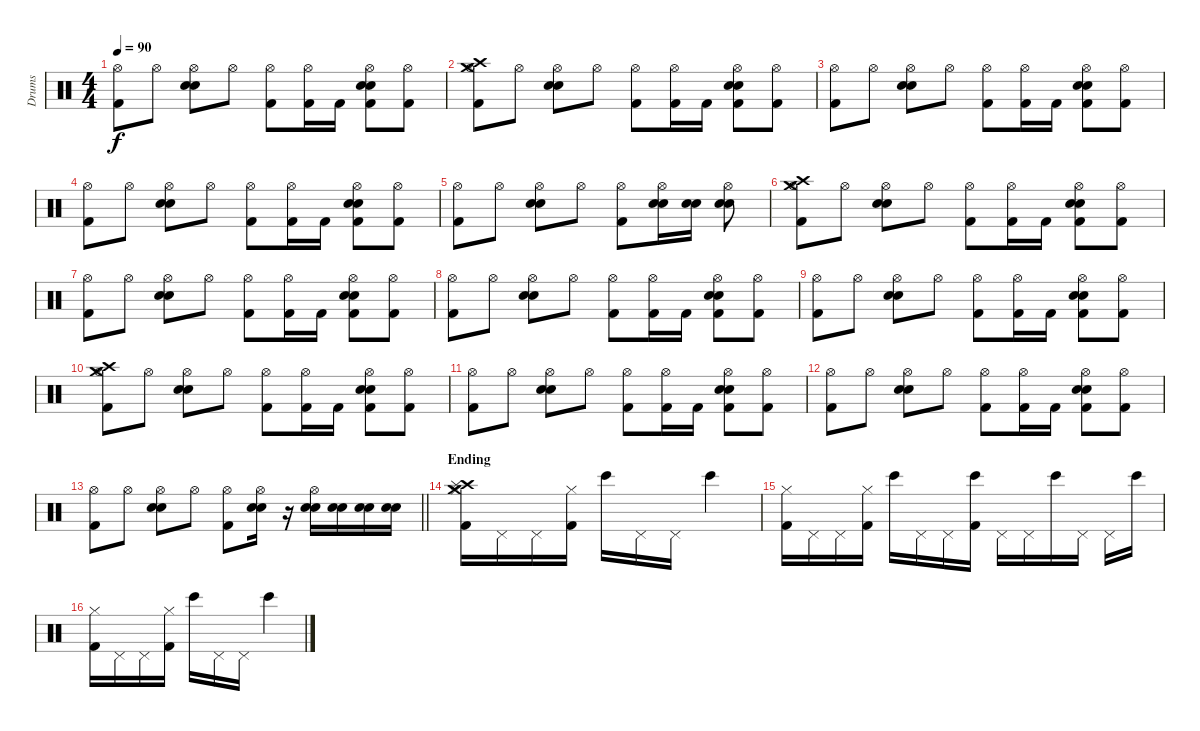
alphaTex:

\track ("Drums" "Drums") {instrument percussion}
\staff {score}
\articulation defaults
\ts (4 4)
\tempo 90
\clef neutral
\ks c
("Hi-Hat (open)" "Kick (hit) 2").8{dy f} "Hi-Hat (open)".8 ("Hi-Hat (open)" "Electric Snare (hit)" "Electric Snare (hit)").8 "Hi-Hat (open)".8 ("Hi-Hat (open)" "Kick (hit) 2").8 ("Hi-Hat (open)" "Kick (hit) 2").16 "Kick (hit) 2".16 ("Hi-Hat (open)" "Electric Snare (hit)" "Electric Snare (hit)" "Kick (hit) 2").8 ("Hi-Hat (open)" "Kick (hit) 2").8 |
("Hi-Hat (open)" "Crash high (hit)" "Crash medium (hit)" "Kick (hit) 2").8 "Hi-Hat (open)".8 ("Hi-Hat (open)" "Electric Snare (hit)" "Electric Snare (hit)").8 "Hi-Hat (open)".8 ("Hi-Hat (open)" "Kick (hit) 2").8 ("Hi-Hat (open)" "Kick (hit) 2").16 "Kick (hit) 2".16 ("Hi-Hat (open)" "Electric Snare (hit)" "Electric Snare (hit)" "Kick (hit) 2").8 ("Hi-Hat (open)" "Kick (hit) 2").8 |
("Hi-Hat (open)" "Kick (hit) 2").8 "Hi-Hat (open)".8 ("Hi-Hat (open)" "Electric Snare (hit)" "Electric Snare (hit)").8 "Hi-Hat (open)".8 ("Hi-Hat (open)" "Kick (hit) 2").8 ("Hi-Hat (open)" "Kick (hit) 2").16 "Kick (hit) 2".16 ("Hi-Hat (open)" "Electric Snare (hit)" "Electric Snare (hit)" "Kick (hit) 2").8 ("Hi-Hat (open)" "Kick (hit) 2").8 |
("Hi-Hat (open)" "Kick (hit) 2").8 "Hi-Hat (open)".8 ("Hi-Hat (open)" "Electric Snare (hit)" "Electric Snare (hit)").8 "Hi-Hat (open)".8 ("Hi-Hat (open)" "Kick (hit) 2").8 ("Hi-Hat (open)" "Kick (hit) 2").16 "Kick (hit) 2".16 ("Hi-Hat (open)" "Electric Snare (hit)" "Electric Snare (hit)" "Kick (hit) 2").8 ("Hi-Hat (open)" "Kick (hit) 2").8 |
("Hi-Hat (open)" "Kick (hit) 2").8 "Hi-Hat (open)".8 ("Hi-Hat (open)" "Electric Snare (hit)" "Electric Snare (hit)").8 "Hi-Hat (open)".8 ("Hi-Hat (open)" "Kick (hit) 2").8 ("Hi-Hat (open)" "Electric Snare (hit)" "Electric Snare (hit)").16 ("Electric Snare (hit)" "Electric Snare (hit)").16 ("Hi-Hat (open)" "Electric Snare (hit)" "Electric Snare (hit)").8 |
("Hi-Hat (open)" "Crash high (hit)" "Crash medium (hit)" "Kick (hit) 2").8 "Hi-Hat (open)".8 ("Hi-Hat (open)" "Electric Snare (hit)" "Electric Snare (hit)").8 "Hi-Hat (open)".8 ("Hi-Hat (open)" "Kick (hit) 2").8 ("Hi-Hat (open)" "Kick (hit) 2").16 "Kick (hit) 2".16 ("Hi-Hat (open)" "Electric Snare (hit)" "Electric Snare (hit)" "Kick (hit) 2").8 ("Hi-Hat (open)" "Kick (hit) 2").8 |
("Hi-Hat (open)" "Kick (hit) 2").8 "Hi-Hat (open)".8 ("Hi-Hat (open)" "Electric Snare (hit)" "Electric Snare (hit)").8 "Hi-Hat (open)".8 ("Hi-Hat (open)" "Kick (hit) 2").8 ("Hi-Hat (open)" "Kick (hit) 2").16 "Kick (hit) 2".16 ("Hi-Hat (open)" "Electric Snare (hit)" "Electric Snare (hit)" "Kick (hit) 2").8 ("Hi-Hat (open)" "Kick (hit) 2").8 |
("Hi-Hat (open)" "Kick (hit) 2").8 "Hi-Hat (open)".8 ("Hi-Hat (open)" "Electric Snare (hit)" "Electric Snare (hit)").8 "Hi-Hat (open)".8 ("Hi-Hat (open)" "Kick (hit) 2").8 ("Hi-Hat (open)" "Kick (hit) 2").16 "Kick (hit) 2".16 ("Hi-Hat (open)" "Electric Snare (hit)" "Electric Snare (hit)" "Kick (hit) 2").8 ("Hi-Hat (open)" "Kick (hit) 2").8 |
("Hi-Hat (open)" "Kick (hit) 2").8 "Hi-Hat (open)".8 ("Hi-Hat (open)" "Electric Snare (hit)" "Electric Snare (hit)").8 "Hi-Hat (open)".8 ("Hi-Hat (open)" "Kick (hit) 2").8 ("Hi-Hat (open)" "Kick (hit) 2").16 "Kick (hit) 2".16 ("Hi-Hat (open)" "Electric Snare (hit)" "Electric Snare (hit)" "Kick (hit) 2").8 ("Hi-Hat (open)" "Kick (hit) 2").8 |
("Hi-Hat (open)" "Crash high (hit)" "Crash medium (hit)" "Kick (hit) 2").8 "Hi-Hat (open)".8 ("Hi-Hat (open)" "Electric Snare (hit)" "Electric Snare (hit)").8 "Hi-Hat (open)".8 ("Hi-Hat (open)" "Kick (hit) 2").8 ("Hi-Hat (open)" "Kick (hit) 2").16 "Kick (hit) 2".16 ("Hi-Hat (open)" "Electric Snare (hit)" "Electric Snare (hit)" "Kick (hit) 2").8 ("Hi-Hat (open)" "Kick (hit) 2").8 |
("Hi-Hat (open)" "Kick (hit) 2").8 "Hi-Hat (open)".8 ("Hi-Hat (open)" "Electric Snare (hit)" "Electric Snare (hit)").8 "Hi-Hat (open)".8 ("Hi-Hat (open)" "Kick (hit) 2").8 ("Hi-Hat (open)" "Kick (hit) 2").16 "Kick (hit) 2".16 ("Hi-Hat (open)" "Electric Snare (hit)" "Electric Snare (hit)" "Kick (hit) 2").8 ("Hi-Hat (open)" "Kick (hit) 2").8 |
("Hi-Hat (open)" "Kick (hit) 2").8 "Hi-Hat (open)".8 ("Hi-Hat (open)" "Electric Snare (hit)" "Electric Snare (hit)").8 "Hi-Hat (open)".8 ("Hi-Hat (open)" "Kick (hit) 2").8 ("Hi-Hat (open)" "Kick (hit) 2").16 "Kick (hit) 2".16 ("Hi-Hat (open)" "Electric Snare (hit)" "Electric Snare (hit)" "Kick (hit) 2").8 ("Hi-Hat (open)" "Kick (hit) 2").8 |
\barLineRight lightlight
("Hi-Hat (open)" "Kick (hit) 2").8 "Hi-Hat (open)".8 ("Hi-Hat (open)" "Electric Snare (hit)" "Electric Snare (hit)").8 "Hi-Hat (open)".8 ("Hi-Hat (open)" "Kick (hit) 2").8 ("Hi-Hat (open)" "Electric Snare (hit)" "Electric Snare (hit)").16 r.16 ("Hi-Hat (open)" "Electric Snare (hit)" "Electric Snare (hit)").16 ("Electric Snare (hit)" "Electric Snare (hit)").16 ("Electric Snare (hit)" "Electric Snare (hit)").16 ("Electric Snare (hit)" "Electric Snare (hit)").16 |
\section ("" "Ending")
("Crash high (hit)" "Hi-Hat (closed)" "Splash (hit)" "Crash medium (hit)" "Kick (hit) 2").16 "Pedal Hi-Hat (hit)".16 "Pedal Hi-Hat (hit)".16 ("Hi-Hat (closed)" "Kick (hit) 2").16 "Bongo High (hit)".16 "Pedal Hi-Hat (hit)".16 "Pedal Hi-Hat (hit)".16 "Bongo High (hit)".4 |
("Hi-Hat (closed)" "Kick (hit) 2").16 "Pedal Hi-Hat (hit)".16 "Pedal Hi-Hat (hit)".16 ("Hi-Hat (closed)" "Kick (hit) 2").16 "Bongo High (hit)".16 "Pedal Hi-Hat (hit)".16 "Pedal Hi-Hat (hit)".16 ("Bongo High (hit)" "Kick (hit) 2").16 "Pedal Hi-Hat (hit)".16 "Pedal Hi-Hat (hit)".16 "Bongo High (hit)".16 "Pedal Hi-Hat (hit)".16 "Pedal Hi-Hat (hit)".16 "Bongo High (hit)".16 |
("Hi-Hat (closed)" "Kick (hit) 2").16 "Pedal Hi-Hat (hit)".16 "Pedal Hi-Hat (hit)".16 ("Hi-Hat (closed)" "Kick (hit) 2").16 "Bongo High (hit)".16 "Pedal Hi-Hat (hit)".16 "Pedal Hi-Hat (hit)".16 "Bongo High (hit)".4
